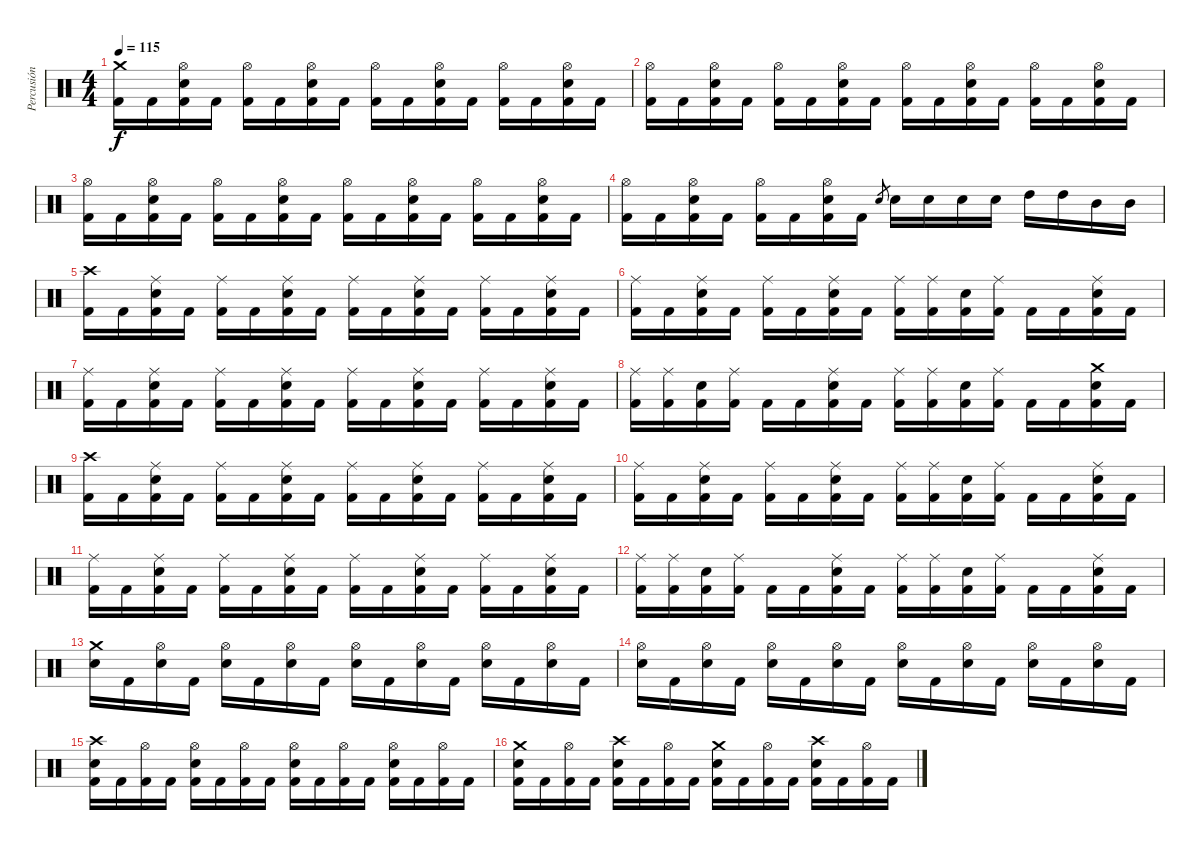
\track ("Percusión" "Percusión") {instrument percussion}
\staff {score}
\articulation defaults
\ts (4 4)
\tempo 115
\clef neutral
\ks c
("Crash medium (hit)" "Kick (hit) 2").16{dy f} "Kick (hit) 2".16 ("Hi-Hat (open)" "Snare (hit) 2" "Kick (hit) 2").16 "Kick (hit) 2".16 ("Hi-Hat (open)" "Kick (hit) 2").16 "Kick (hit) 2".16 ("Hi-Hat (open)" "Snare (hit) 2" "Kick (hit) 2").16 "Kick (hit) 2".16 ("Hi-Hat (open)" "Kick (hit) 2").16 "Kick (hit) 2".16 ("Hi-Hat (open)" "Snare (hit) 2" "Kick (hit) 2").16 "Kick (hit) 2".16 ("Hi-Hat (open)" "Kick (hit) 2").16 "Kick (hit) 2".16 ("Hi-Hat (open)" "Snare (hit) 2" "Kick (hit) 2").16 "Kick (hit) 2".16 |
("Hi-Hat (open)" "Kick (hit) 2").16 "Kick (hit) 2".16 ("Hi-Hat (open)" "Snare (hit) 2" "Kick (hit) 2").16 "Kick (hit) 2".16 ("Hi-Hat (open)" "Kick (hit) 2").16 "Kick (hit) 2".16 ("Hi-Hat (open)" "Snare (hit) 2" "Kick (hit) 2").16 "Kick (hit) 2".16 ("Hi-Hat (open)" "Kick (hit) 2").16 "Kick (hit) 2".16 ("Hi-Hat (open)" "Snare (hit) 2" "Kick (hit) 2").16 "Kick (hit) 2".16 ("Hi-Hat (open)" "Kick (hit) 2").16 "Kick (hit) 2".16 ("Hi-Hat (open)" "Snare (hit) 2" "Kick (hit) 2").16 "Kick (hit) 2".16 |
("Hi-Hat (open)" "Kick (hit) 2").16 "Kick (hit) 2".16 ("Hi-Hat (open)" "Snare (hit) 2" "Kick (hit) 2").16 "Kick (hit) 2".16 ("Hi-Hat (open)" "Kick (hit) 2").16 "Kick (hit) 2".16 ("Hi-Hat (open)" "Snare (hit) 2" "Kick (hit) 2").16 "Kick (hit) 2".16 ("Hi-Hat (open)" "Kick (hit) 2").16 "Kick (hit) 2".16 ("Hi-Hat (open)" "Snare (hit) 2" "Kick (hit) 2").16 "Kick (hit) 2".16 ("Hi-Hat (open)" "Kick (hit) 2").16 "Kick (hit) 2".16 ("Hi-Hat (open)" "Snare (hit) 2" "Kick (hit) 2").16 "Kick (hit) 2".16 |
("Hi-Hat (open)" "Kick (hit) 2").16 "Kick (hit) 2".16 ("Hi-Hat (open)" "Snare (hit) 2" "Kick (hit) 2").16 "Kick (hit) 2".16 ("Hi-Hat (open)" "Kick (hit) 2").16 "Kick (hit) 2".16 ("Hi-Hat (open)" "Snare (hit) 2" "Kick (hit) 2").16 "Kick (hit) 2".16 "Snare (hit) 2".8{gr} "Snare (hit) 2".16 "Snare (hit) 2".16 "Snare (hit) 2".16 "Snare (hit) 2".16 "High Tom (hit)".16 "High Tom (hit)".16 "Mid Tom (hit)".16 "Mid Tom (hit)".16 |
("Crash high (hit)" "Kick (hit) 2").16 "Kick (hit) 2".16 ("Ride (middle)" "Snare (hit) 2" "Kick (hit) 2").16 "Kick (hit) 2".16 ("Ride (middle)" "Kick (hit) 2").16 "Kick (hit) 2".16 ("Ride (middle)" "Snare (hit) 2" "Kick (hit) 2").16 "Kick (hit) 2".16 ("Ride (middle)" "Kick (hit) 2").16 "Kick (hit) 2".16 ("Ride (middle)" "Snare (hit) 2" "Kick (hit) 2").16 "Kick (hit) 2".16 ("Ride (middle)" "Kick (hit) 2").16 "Kick (hit) 2".16 ("Ride (middle)" "Snare (hit) 2" "Kick (hit) 2").16 "Kick (hit) 2".16 |
("Ride (middle)" "Kick (hit) 2").16 "Kick (hit) 2".16 ("Ride (middle)" "Snare (hit) 2" "Kick (hit) 2").16 "Kick (hit) 2".16 ("Ride (middle)" "Kick (hit) 2").16 "Kick (hit) 2".16 ("Ride (middle)" "Snare (hit) 2" "Kick (hit) 2").16 "Kick (hit) 2".16 ("Ride (middle)" "Kick (hit) 2").16 ("Ride (middle)" "Kick (hit) 2").16 ("Snare (hit) 2" "Kick (hit) 2").16 ("Ride (middle)" "Kick (hit) 2").16 "Kick (hit) 2".16 "Kick (hit) 2".16 ("Ride (middle)" "Snare (hit) 2" "Kick (hit) 2").16 "Kick (hit) 2".16 |
("Ride (middle)" "Kick (hit) 2").16 "Kick (hit) 2".16 ("Ride (middle)" "Snare (hit) 2" "Kick (hit) 2").16 "Kick (hit) 2".16 ("Ride (middle)" "Kick (hit) 2").16 "Kick (hit) 2".16 ("Ride (middle)" "Snare (hit) 2" "Kick (hit) 2").16 "Kick (hit) 2".16 ("Ride (middle)" "Kick (hit) 2").16 "Kick (hit) 2".16 ("Ride (middle)" "Snare (hit) 2" "Kick (hit) 2").16 "Kick (hit) 2".16 ("Ride (middle)" "Kick (hit) 2").16 "Kick (hit) 2".16 ("Ride (middle)" "Snare (hit) 2" "Kick (hit) 2").16 "Kick (hit) 2".16 |
("Ride (middle)" "Kick (hit) 2").16 ("Ride (middle)" "Kick (hit) 2").16 ("Snare (hit) 2" "Kick (hit) 2").16 ("Ride (middle)" "Kick (hit) 2").16 "Kick (hit) 2".16 "Kick (hit) 2".16 ("Ride (middle)" "Snare (hit) 2" "Kick (hit) 2").16 "Kick (hit) 2".16 ("Ride (middle)" "Kick (hit) 2").16 ("Ride (middle)" "Kick (hit) 2").16 ("Snare (hit) 2" "Kick (hit) 2").16 ("Ride (middle)" "Kick (hit) 2").16 "Kick (hit) 2".16 "Kick (hit) 2".16 ("Crash medium (hit)" "Snare (hit) 2" "Kick (hit) 2").16 "Kick (hit) 2".16 |
("Crash high (hit)" "Kick (hit) 2").16 "Kick (hit) 2".16 ("Ride (middle)" "Snare (hit) 2" "Kick (hit) 2").16 "Kick (hit) 2".16 ("Ride (middle)" "Kick (hit) 2").16 "Kick (hit) 2".16 ("Ride (middle)" "Snare (hit) 2" "Kick (hit) 2").16 "Kick (hit) 2".16 ("Ride (middle)" "Kick (hit) 2").16 "Kick (hit) 2".16 ("Ride (middle)" "Snare (hit) 2" "Kick (hit) 2").16 "Kick (hit) 2".16 ("Ride (middle)" "Kick (hit) 2").16 "Kick (hit) 2".16 ("Ride (middle)" "Snare (hit) 2" "Kick (hit) 2").16 "Kick (hit) 2".16 |
("Ride (middle)" "Kick (hit) 2").16 "Kick (hit) 2".16 ("Ride (middle)" "Snare (hit) 2" "Kick (hit) 2").16 "Kick (hit) 2".16 ("Ride (middle)" "Kick (hit) 2").16 "Kick (hit) 2".16 ("Ride (middle)" "Snare (hit) 2" "Kick (hit) 2").16 "Kick (hit) 2".16 ("Ride (middle)" "Kick (hit) 2").16 ("Ride (middle)" "Kick (hit) 2").16 ("Snare (hit) 2" "Kick (hit) 2").16 ("Ride (middle)" "Kick (hit) 2").16 "Kick (hit) 2".16 "Kick (hit) 2".16 ("Ride (middle)" "Snare (hit) 2" "Kick (hit) 2").16 "Kick (hit) 2".16 |
("Ride (middle)" "Kick (hit) 2").16 "Kick (hit) 2".16 ("Ride (middle)" "Snare (hit) 2" "Kick (hit) 2").16 "Kick (hit) 2".16 ("Ride (middle)" "Kick (hit) 2").16 "Kick (hit) 2".16 ("Ride (middle)" "Snare (hit) 2" "Kick (hit) 2").16 "Kick (hit) 2".16 ("Ride (middle)" "Kick (hit) 2").16 "Kick (hit) 2".16 ("Ride (middle)" "Snare (hit) 2" "Kick (hit) 2").16 "Kick (hit) 2".16 ("Ride (middle)" "Kick (hit) 2").16 "Kick (hit) 2".16 ("Ride (middle)" "Snare (hit) 2" "Kick (hit) 2").16 "Kick (hit) 2".16 |
("Ride (middle)" "Kick (hit) 2").16 ("Ride (middle)" "Kick (hit) 2").16 ("Snare (hit) 2" "Kick (hit) 2").16 ("Ride (middle)" "Kick (hit) 2").16 "Kick (hit) 2".16 "Kick (hit) 2".16 ("Ride (middle)" "Snare (hit) 2" "Kick (hit) 2").16 "Kick (hit) 2".16 ("Ride (middle)" "Kick (hit) 2").16 ("Ride (middle)" "Kick (hit) 2").16 ("Snare (hit) 2" "Kick (hit) 2").16 ("Ride (middle)" "Kick (hit) 2").16 "Kick (hit) 2".16 "Kick (hit) 2".16 ("Ride (middle)" "Snare (hit) 2" "Kick (hit) 2").16 "Kick (hit) 2".16 |
("Crash medium (hit)" "Snare (hit) 2").16 "Kick (hit) 2".16 ("Hi-Hat (open)" "Snare (hit) 2").16 "Kick (hit) 2".16 ("Hi-Hat (open)" "Snare (hit) 2").16 "Kick (hit) 2".16 ("Hi-Hat (open)" "Snare (hit) 2").16 "Kick (hit) 2".16 ("Hi-Hat (open)" "Snare (hit) 2").16 "Kick (hit) 2".16 ("Hi-Hat (open)" "Snare (hit) 2").16 "Kick (hit) 2".16 ("Hi-Hat (open)" "Snare (hit) 2").16 "Kick (hit) 2".16 ("Hi-Hat (open)" "Snare (hit) 2").16 "Kick (hit) 2".16 |
("Hi-Hat (open)" "Snare (hit) 2").16 "Kick (hit) 2".16 ("Hi-Hat (open)" "Snare (hit) 2").16 "Kick (hit) 2".16 ("Hi-Hat (open)" "Snare (hit) 2").16 "Kick (hit) 2".16 ("Hi-Hat (open)" "Snare (hit) 2").16 "Kick (hit) 2".16 ("Hi-Hat (open)" "Snare (hit) 2").16 "Kick (hit) 2".16 ("Hi-Hat (open)" "Snare (hit) 2").16 "Kick (hit) 2".16 ("Hi-Hat (open)" "Snare (hit) 2").16 "Kick (hit) 2".16 ("Hi-Hat (open)" "Snare (hit) 2").16 "Kick (hit) 2".16 |
("Crash high (hit)" "Snare (hit) 2" "Kick (hit) 2").16 "Kick (hit) 2".16 ("Hi-Hat (open)" "Kick (hit) 2").16 "Kick (hit) 2".16 ("Hi-Hat (open)" "Snare (hit) 2" "Kick (hit) 2").16 "Kick (hit) 2".16 ("Hi-Hat (open)" "Kick (hit) 2").16 "Kick (hit) 2".16 ("Hi-Hat (open)" "Snare (hit) 2" "Kick (hit) 2").16 "Kick (hit) 2".16 ("Hi-Hat (open)" "Kick (hit) 2").16 "Kick (hit) 2".16 ("Hi-Hat (open)" "Snare (hit) 2" "Kick (hit) 2").16 "Kick (hit) 2".16 ("Hi-Hat (open)" "Kick (hit) 2").16 "Kick (hit) 2".16 |
("Crash medium (hit)" "Snare (hit) 2" "Kick (hit) 2").16 "Kick (hit) 2".16 ("Hi-Hat (open)" "Kick (hit) 2").16 "Kick (hit) 2".16 ("Crash high (hit)" "Snare (hit) 2" "Kick (hit) 2").16 "Kick (hit) 2".16 ("Hi-Hat (open)" "Kick (hit) 2").16 "Kick (hit) 2".16 ("Crash medium (hit)" "Snare (hit) 2" "Kick (hit) 2").16 "Kick (hit) 2".16 ("Hi-Hat (open)" "Kick (hit) 2").16 "Kick (hit) 2".16 ("Crash high (hit)" "Snare (hit) 2" "Kick (hit) 2").16 "Kick (hit) 2".16 ("Hi-Hat (open)" "Kick (hit) 2").16 "Kick (hit) 2".16
